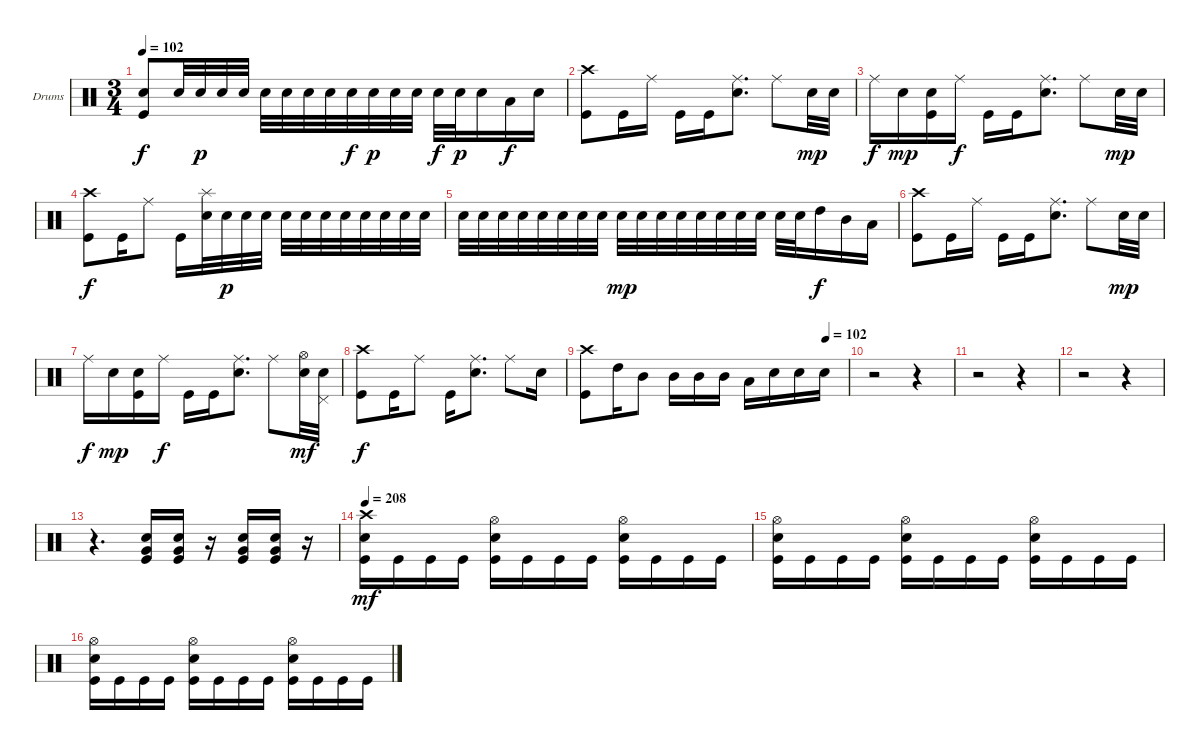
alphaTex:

\bracketExtendMode groupsimilarinstruments
\firstSystemTrackNameOrientation horizontal
\otherSystemsTrackNameOrientation horizontal
\track ("Drumkit" "Drums") {instrument percussion}
\staff {score}
\articulation defaults
\ts (3 4)
\tempo 102
\clef neutral
\ks c
("Snare (hit) 2" "Kick (hit)").8{dy f} "Snare (hit) 2".32 "Snare (hit) 2".32{dy p} "Snare (hit) 2".32 "Snare (hit) 2".32 "Snare (hit) 2".32 "Snare (hit) 2".32 "Snare (hit) 2".32 "Snare (hit) 2".32 "Snare (hit) 2".32{dy f} "Snare (hit) 2".32{dy p} "Snare (hit) 2".32 "Snare (hit) 2".32 "Snare (hit) 2".32{dy f} "Snare (hit) 2".32{dy p} "Snare (hit) 2".16 "Low Tom (hit)".16{dy f} "Snare (hit) 2".16 |
("Crash high (hit)" "Kick (hit)").8 "Kick (hit)".16 "Ride (middle)".16 "Kick (hit)".16 "Kick (hit)".16 ("Ride (middle)" "Snare (hit) 2").8{d} "Ride (middle)".8 "Snare (hit) 2".32{dy mp} "Snare (hit) 2".32 |
"Ride (middle)".16{dy f} "Snare (hit) 2".16{dy mp} ("Snare (hit) 2" "Kick (hit)").16 "Ride (middle)".16{dy f} "Kick (hit)".16 "Kick (hit)".16 ("Ride (middle)" "Snare (hit) 2").8{d} "Ride (middle)".8 "Snare (hit) 2".32{dy mp} "Snare (hit) 2".32 |
("Crash high (hit)" "Kick (hit)").8{dy f} "Kick (hit)".16 "Ride (middle)".8 "Kick (hit)".16 ("Splash (hit)" "Snare (hit) 2").32 "Snare (hit) 2".32{dy p} "Snare (hit) 2".32 "Snare (hit) 2".32 "Snare (hit) 2".32 "Snare (hit) 2".32 "Snare (hit) 2".32 "Snare (hit) 2".32 "Snare (hit) 2".32 "Snare (hit) 2".32 "Snare (hit) 2".32 "Snare (hit) 2".32 |
"Snare (hit) 2".32 "Snare (hit) 2".32 "Snare (hit) 2".32 "Snare (hit) 2".32 "Snare (hit) 2".32 "Snare (hit) 2".32 "Snare (hit) 2".32 "Snare (hit) 2".32 "Snare (hit) 2".32{dy mp} "Snare (hit) 2".32 "Snare (hit) 2".32 "Snare (hit) 2".32 "Snare (hit) 2".32 "Snare (hit) 2".32 "Snare (hit) 2".32 "Snare (hit) 2".32 "Snare (hit) 2".32 "Snare (hit) 2".32 "High Tom (hit)".16{dy f} "Mid Tom (hit)".16 "Low Tom (hit)".16 |
("Crash high (hit)" "Kick (hit)").8 "Kick (hit)".16 "Ride (middle)".16 "Kick (hit)".16 "Kick (hit)".16 ("Ride (middle)" "Snare (hit) 2").8{d} "Ride (middle)".8 "Snare (hit) 2".32{dy mp} "Snare (hit) 2".32 |
"Ride (middle)".16{dy f} "Snare (hit) 2".16{dy mp} ("Snare (hit) 2" "Kick (hit)").16 "Ride (middle)".16{dy f} "Kick (hit)".16 "Kick (hit)".16 ("Ride (middle)" "Snare (hit) 2").8{d} "Ride (middle)".8 ("Hi-Hat (open)" "Snare (hit) 2").32{dy mf} ("Pedal Hi-Hat (hit)" "Snare (hit) 2").32 |
("Crash high (hit)" "Kick (hit)").8{dy f} "Kick (hit)".16 "Ride (middle)".8 "Kick (hit)".16 ("Ride (middle)" "Snare (hit) 2").8{d} "Ride (middle)".8 "Snare (hit) 2".16 |
\tempo (102 0.916667)
("Crash high (hit)" "Kick (hit)").8 "High Tom (hit)".16 "Mid Tom (hit)".8 "Mid Tom (hit)".16 "Mid Tom (hit)".16 "Mid Tom (hit)".16 "Low Tom (hit)".16 "Snare (hit) 2".16 "Snare (hit) 2".16 "Snare (hit) 2".16 |
r.2 r.4 |
r.2 r.4 |
r.2 r.4 |
r.4{d} ("Very Low Tom (hit)" "Snare (hit) 2" "Kick (hit)").16 ("Very Low Tom (hit)" "Snare (hit) 2" "Kick (hit)").16 r.16 ("Very Low Tom (hit)" "Snare (hit) 2" "Kick (hit)").16 ("Very Low Tom (hit)" "Snare (hit) 2" "Kick (hit)").16 r.16 |
\tempo 208
("Crash high (hit)" "Snare (hit) 2" "Kick (hit)").16{dy mf} "Kick (hit)".16 "Kick (hit)".16 "Kick (hit)".16 ("Hi-Hat (open)" "Snare (hit) 2" "Kick (hit)").16 "Kick (hit)".16 "Kick (hit)".16 "Kick (hit)".16 ("Hi-Hat (open)" "Snare (hit) 2" "Kick (hit)").16 "Kick (hit)".16 "Kick (hit)".16 "Kick (hit)".16 |
("Hi-Hat (open)" "Snare (hit) 2" "Kick (hit)").16 "Kick (hit)".16 "Kick (hit)".16 "Kick (hit)".16 ("Hi-Hat (open)" "Snare (hit) 2" "Kick (hit)").16 "Kick (hit)".16 "Kick (hit)".16 "Kick (hit)".16 ("Hi-Hat (open)" "Snare (hit) 2" "Kick (hit)").16 "Kick (hit)".16 "Kick (hit)".16 "Kick (hit)".16 |
("Hi-Hat (open)" "Snare (hit) 2" "Kick (hit)").16 "Kick (hit)".16 "Kick (hit)".16 "Kick (hit)".16 ("Hi-Hat (open)" "Snare (hit) 2" "Kick (hit)").16 "Kick (hit)".16 "Kick (hit)".16 "Kick (hit)".16 ("Hi-Hat (open)" "Snare (hit) 2" "Kick (hit)").16 "Kick (hit)".16 "Kick (hit)".16 "Kick (hit)".16
